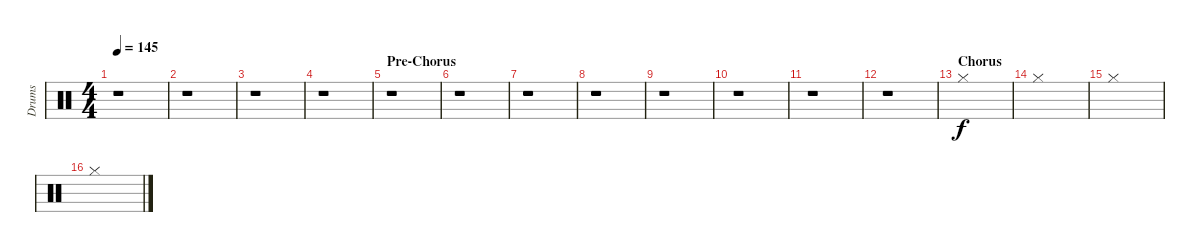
\track ("Drums" "Drums") {instrument percussion}
\staff {score}
\articulation defaults
\ts (4 4)
\tempo 145
\clef neutral
\ks c
r.1{dy f} |
r.1 |
r.1 |
r.1 |
\section ("" "Pre-Chorus")
r.1 |
r.1 |
r.1 |
r.1 |
r.1 |
r.1 |
r.1 |
r.1 |
\section ("" "Chorus")
"Hi-Hat (closed)".1 |
"Hi-Hat (closed)".1 |
"Hi-Hat (closed)".1 |
"Hi-Hat (closed)".1
